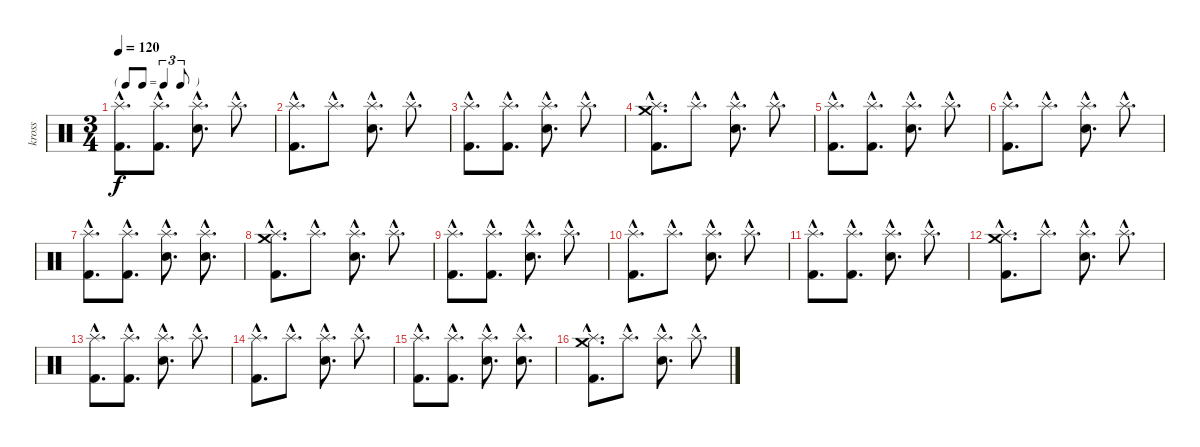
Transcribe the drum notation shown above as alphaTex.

\track ("kross" "kross") {instrument percussion}
\staff {score}
\articulation defaults
\ts (3 4)
\tf triplet8th
\tempo 120
\clef neutral
\ks c
("Splash (hit)"{hac} "Kick (hit) 2"{hac}).8{d dy f} ("Splash (hit)"{hac} "Kick (hit) 2"{hac}).8{d} ("Electric Snare (hit)"{hac} "Splash (hit)"{hac}).8{d} "Splash (hit)"{hac}.8{d} |
("Splash (hit)"{hac} "Kick (hit) 2"{hac}).8{d} "Splash (hit)"{hac}.8{d} ("Electric Snare (hit)"{hac} "Splash (hit)"{hac}).8{d} "Splash (hit)"{hac}.8{d} |
("Splash (hit)"{hac} "Kick (hit) 2"{hac}).8{d} ("Splash (hit)"{hac} "Kick (hit) 2"{hac}).8{d} ("Electric Snare (hit)"{hac} "Splash (hit)"{hac}).8{d} "Splash (hit)"{hac}.8{d} |
("Splash (hit)"{hac} "Crash medium (hit)"{hac} "Kick (hit) 2"{hac}).8{d} "Splash (hit)"{hac}.8{d} ("Electric Snare (hit)"{hac} "Splash (hit)"{hac}).8{d} "Splash (hit)"{hac}.8{d} |
("Splash (hit)"{hac} "Kick (hit) 2"{hac}).8{d} ("Splash (hit)"{hac} "Kick (hit) 2"{hac}).8{d} ("Electric Snare (hit)"{hac} "Splash (hit)"{hac}).8{d} "Splash (hit)"{hac}.8{d} |
("Splash (hit)"{hac} "Kick (hit) 2"{hac}).8{d} "Splash (hit)"{hac}.8{d} ("Electric Snare (hit)"{hac} "Splash (hit)"{hac}).8{d} "Splash (hit)"{hac}.8{d} |
("Splash (hit)"{hac} "Kick (hit) 2"{hac}).8{d} ("Splash (hit)"{hac} "Kick (hit) 2"{hac}).8{d} ("Electric Snare (hit)"{hac} "Splash (hit)"{hac}).8{d} ("Electric Snare (hit)"{hac} "Splash (hit)"{hac}).8{d} |
("Splash (hit)"{hac} "Crash medium (hit)"{hac} "Kick (hit) 2"{hac}).8{d} "Splash (hit)"{hac}.8{d} ("Electric Snare (hit)"{hac} "Splash (hit)"{hac}).8{d} "Splash (hit)"{hac}.8{d} |
("Splash (hit)"{hac} "Kick (hit) 2"{hac}).8{d} ("Splash (hit)"{hac} "Kick (hit) 2"{hac}).8{d} ("Electric Snare (hit)"{hac} "Splash (hit)"{hac}).8{d} "Splash (hit)"{hac}.8{d} |
("Splash (hit)"{hac} "Kick (hit) 2"{hac}).8{d} "Splash (hit)"{hac}.8{d} ("Electric Snare (hit)"{hac} "Splash (hit)"{hac}).8{d} "Splash (hit)"{hac}.8{d} |
("Splash (hit)"{hac} "Kick (hit) 2"{hac}).8{d} ("Splash (hit)"{hac} "Kick (hit) 2"{hac}).8{d} ("Electric Snare (hit)"{hac} "Splash (hit)"{hac}).8{d} "Splash (hit)"{hac}.8{d} |
("Splash (hit)"{hac} "Crash medium (hit)"{hac} "Kick (hit) 2"{hac}).8{d} "Splash (hit)"{hac}.8{d} ("Electric Snare (hit)"{hac} "Splash (hit)"{hac}).8{d} "Splash (hit)"{hac}.8{d} |
("Splash (hit)"{hac} "Kick (hit) 2"{hac}).8{d} ("Splash (hit)"{hac} "Kick (hit) 2"{hac}).8{d} ("Electric Snare (hit)"{hac} "Splash (hit)"{hac}).8{d} "Splash (hit)"{hac}.8{d} |
("Splash (hit)"{hac} "Kick (hit) 2"{hac}).8{d} "Splash (hit)"{hac}.8{d} ("Electric Snare (hit)"{hac} "Splash (hit)"{hac}).8{d} "Splash (hit)"{hac}.8{d} |
("Splash (hit)"{hac} "Kick (hit) 2"{hac}).8{d} ("Splash (hit)"{hac} "Kick (hit) 2"{hac}).8{d} ("Electric Snare (hit)"{hac} "Splash (hit)"{hac}).8{d} ("Electric Snare (hit)"{hac} "Splash (hit)"{hac}).8{d} |
("Splash (hit)"{hac} "Crash medium (hit)"{hac} "Kick (hit) 2"{hac}).8{d} "Splash (hit)"{hac}.8{d} ("Electric Snare (hit)"{hac} "Splash (hit)"{hac}).8{d} "Splash (hit)"{hac}.8{d}
